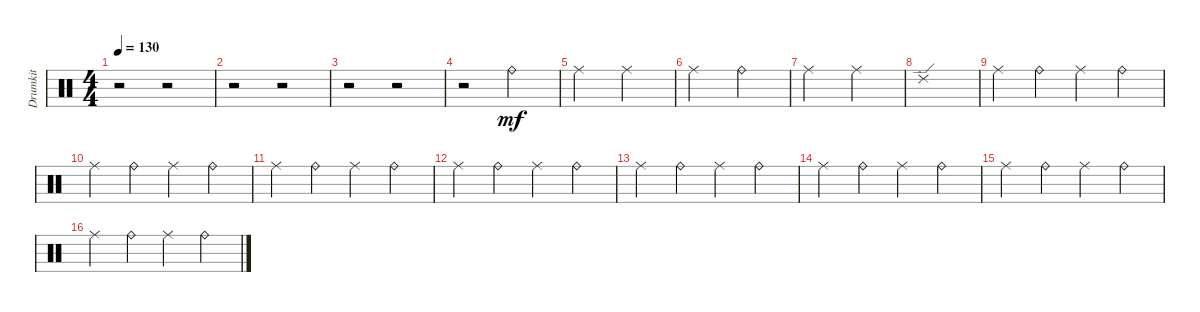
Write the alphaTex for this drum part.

\track ("Drumkit" "Drumkit") {instrument percussion}
\staff {score}
\articulation defaults
\ts (4 4)
\tempo 130
\clef neutral
\ks c
r.2{dy mf} r.2 |
r.2 r.2 |
r.2 r.2 |
r.2 "Ride (bell)".2 |
"Ride (middle)".2 "Ride (middle)".2 |
"Ride (middle)".2 "Ride (bell)".2 |
"Ride (middle)".2 "Ride (middle)".2 |
"Ride (edge) 2".1 |
"Ride (middle)".4 "Ride (bell)".4 "Ride (middle)".4 "Ride (bell)".4 |
"Ride (middle)".4 "Ride (bell)".4 "Ride (middle)".4 "Ride (bell)".4 |
"Ride (middle)".4 "Ride (bell)".4 "Ride (middle)".4 "Ride (bell)".4 |
"Ride (middle)".4 "Ride (bell)".4 "Ride (middle)".4 "Ride (bell)".4 |
"Ride (middle)".4 "Ride (bell)".4 "Ride (middle)".4 "Ride (bell)".4 |
"Ride (middle)".4 "Ride (bell)".4 "Ride (middle)".4 "Ride (bell)".4 |
"Ride (middle)".4 "Ride (bell)".4 "Ride (middle)".4 "Ride (bell)".4 |
"Ride (middle)".4 "Ride (bell)".4 "Ride (middle)".4 "Ride (bell)".4
